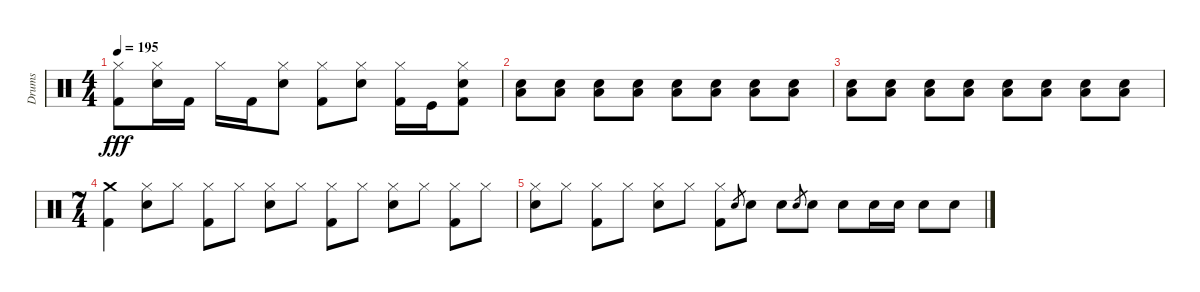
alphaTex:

\track ("Drums" "Drums") {instrument percussion}
\staff {score}
\articulation defaults
\ts (4 4)
\tempo 195
\clef neutral
\ks c
("Hi-Hat (closed)" "Kick (hit) 2").8{dy fff} ("Snare (hit) 2" "Hi-Hat (closed)").16 "Kick (hit) 2".16 "Hi-Hat (closed)".16 "Kick (hit) 2".16 ("Snare (hit) 2" "Hi-Hat (closed)").8 ("Hi-Hat (closed)" "Kick (hit) 2").8 ("Snare (hit) 2" "Hi-Hat (closed)").8 ("Hi-Hat (closed)" "Kick (hit) 2").16 "Kick (hit)".16 ("Kick (hit) 2" "Snare (hit) 2" "Hi-Hat (closed)").8 |
("Snare (hit) 2" "Low Tom (hit)").8 ("Snare (hit) 2" "Low Tom (hit)").8 ("Snare (hit) 2" "Low Tom (hit)").8 ("Snare (hit) 2" "Low Tom (hit)").8 ("Snare (hit) 2" "Low Tom (hit)").8 ("Snare (hit) 2" "Low Tom (hit)").8 ("Snare (hit) 2" "Low Tom (hit)").8 ("Snare (hit) 2" "Low Tom (hit)").8 |
("Snare (hit) 2" "Low Tom (hit)").8 ("Snare (hit) 2" "Low Tom (hit)").8 ("Snare (hit) 2" "Low Tom (hit)").8 ("Snare (hit) 2" "Low Tom (hit)").8 ("Snare (hit) 2" "Low Tom (hit)").8 ("Snare (hit) 2" "Low Tom (hit)").8 ("Snare (hit) 2" "Low Tom (hit)").8 ("Snare (hit) 2" "Low Tom (hit)").8 |
\ts (7 4)
("Kick (hit) 2" "Crash medium (hit)").4 ("Hi-Hat (closed)" "Snare (hit) 2").8 "Hi-Hat (closed)".8 ("Hi-Hat (closed)" "Kick (hit) 2").8 "Hi-Hat (closed)".8 ("Snare (hit) 2" "Hi-Hat (closed)").8 "Hi-Hat (closed)".8 ("Hi-Hat (closed)" "Kick (hit) 2").8 "Hi-Hat (closed)".8 ("Snare (hit) 2" "Hi-Hat (closed)").8 "Hi-Hat (closed)".8 ("Hi-Hat (closed)" "Kick (hit) 2").8 "Hi-Hat (closed)".8 |
("Hi-Hat (closed)" "Snare (hit) 2").8 "Hi-Hat (closed)".8 ("Hi-Hat (closed)" "Kick (hit) 2").8 "Hi-Hat (closed)".8 ("Hi-Hat (closed)" "Snare (hit) 2").8 "Hi-Hat (closed)".8 ("Hi-Hat (closed)" "Kick (hit) 2").8 "Snare (hit) 2".8{gr} "Snare (hit) 2".8 "Snare (hit) 2".8 "Snare (hit) 2".8{gr} "Snare (hit) 2".8 "Snare (hit) 2".8 "Snare (hit) 2".16 "Snare (hit) 2".16 "Snare (hit) 2".8 "Snare (hit) 2".8
